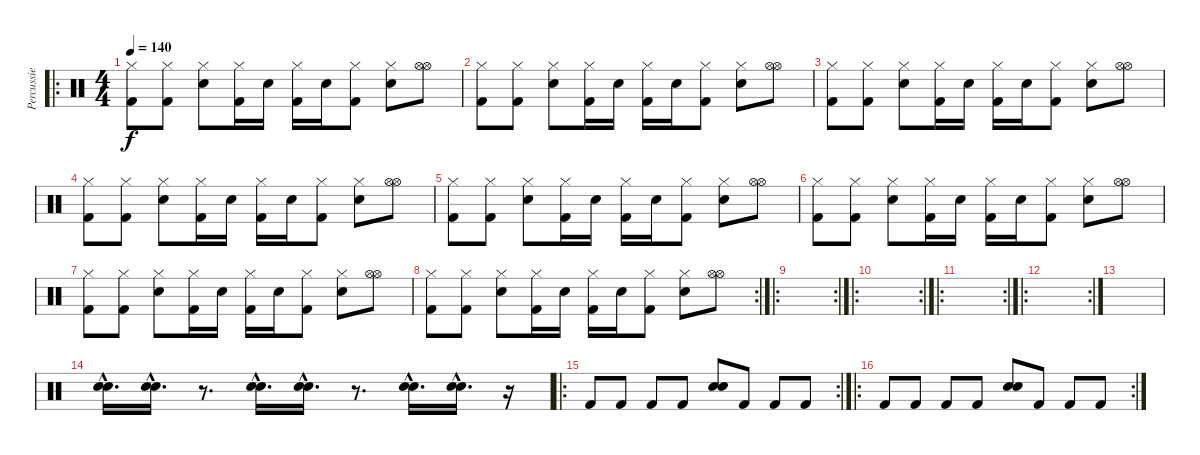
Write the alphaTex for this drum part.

\track ("Percussie" "Percussie") {instrument percussion}
\staff {score}
\articulation defaults
\ro
\ts (4 4)
\tempo 140
\clef neutral
\ks c
("Hi-Hat (closed)" "Kick (hit) 2").8{dy f} ("Hi-Hat (closed)" "Kick (hit) 2").8 ("Hi-Hat (closed)" "Snare (hit) 2").8 ("Hi-Hat (closed)" "Kick (hit) 2").16 "Snare (hit) 2".16 ("Hi-Hat (closed)" "Kick (hit) 2").16 "Snare (hit) 2".16 ("Hi-Hat (closed)" "Kick (hit) 2").8 ("Hi-Hat (closed)" "Snare (hit) 2").8 ("Hi-Hat (open)" "Hi-Hat (open)").8 |
("Hi-Hat (closed)" "Kick (hit) 2").8 ("Hi-Hat (closed)" "Kick (hit) 2").8 ("Hi-Hat (closed)" "Snare (hit) 2").8 ("Hi-Hat (closed)" "Kick (hit) 2").16 "Snare (hit) 2".16 ("Hi-Hat (closed)" "Kick (hit) 2").16 "Snare (hit) 2".16 ("Hi-Hat (closed)" "Kick (hit) 2").8 ("Hi-Hat (closed)" "Snare (hit) 2").8 ("Hi-Hat (open)" "Hi-Hat (open)").8 |
("Hi-Hat (closed)" "Kick (hit) 2").8 ("Hi-Hat (closed)" "Kick (hit) 2").8 ("Hi-Hat (closed)" "Snare (hit) 2").8 ("Hi-Hat (closed)" "Kick (hit) 2").16 "Snare (hit) 2".16 ("Hi-Hat (closed)" "Kick (hit) 2").16 "Snare (hit) 2".16 ("Hi-Hat (closed)" "Kick (hit) 2").8 ("Hi-Hat (closed)" "Snare (hit) 2").8 ("Hi-Hat (open)" "Hi-Hat (open)").8 |
("Hi-Hat (closed)" "Kick (hit) 2").8 ("Hi-Hat (closed)" "Kick (hit) 2").8 ("Hi-Hat (closed)" "Snare (hit) 2").8 ("Hi-Hat (closed)" "Kick (hit) 2").16 "Snare (hit) 2".16 ("Hi-Hat (closed)" "Kick (hit) 2").16 "Snare (hit) 2".16 ("Hi-Hat (closed)" "Kick (hit) 2").8 ("Hi-Hat (closed)" "Snare (hit) 2").8 ("Hi-Hat (open)" "Hi-Hat (open)").8 |
("Hi-Hat (closed)" "Kick (hit) 2").8 ("Hi-Hat (closed)" "Kick (hit) 2").8 ("Hi-Hat (closed)" "Snare (hit) 2").8 ("Hi-Hat (closed)" "Kick (hit) 2").16 "Snare (hit) 2".16 ("Hi-Hat (closed)" "Kick (hit) 2").16 "Snare (hit) 2".16 ("Hi-Hat (closed)" "Kick (hit) 2").8 ("Hi-Hat (closed)" "Snare (hit) 2").8 ("Hi-Hat (open)" "Hi-Hat (open)").8 |
("Hi-Hat (closed)" "Kick (hit) 2").8 ("Hi-Hat (closed)" "Kick (hit) 2").8 ("Hi-Hat (closed)" "Snare (hit) 2").8 ("Hi-Hat (closed)" "Kick (hit) 2").16 "Snare (hit) 2".16 ("Hi-Hat (closed)" "Kick (hit) 2").16 "Snare (hit) 2".16 ("Hi-Hat (closed)" "Kick (hit) 2").8 ("Hi-Hat (closed)" "Snare (hit) 2").8 ("Hi-Hat (open)" "Hi-Hat (open)").8 |
("Hi-Hat (closed)" "Kick (hit) 2").8 ("Hi-Hat (closed)" "Kick (hit) 2").8 ("Hi-Hat (closed)" "Snare (hit) 2").8 ("Hi-Hat (closed)" "Kick (hit) 2").16 "Snare (hit) 2".16 ("Hi-Hat (closed)" "Kick (hit) 2").16 "Snare (hit) 2".16 ("Hi-Hat (closed)" "Kick (hit) 2").8 ("Hi-Hat (closed)" "Snare (hit) 2").8 ("Hi-Hat (open)" "Hi-Hat (open)").8 |
\rc 2
("Hi-Hat (closed)" "Kick (hit) 2").8 ("Hi-Hat (closed)" "Kick (hit) 2").8 ("Hi-Hat (closed)" "Snare (hit) 2").8 ("Hi-Hat (closed)" "Kick (hit) 2").16 "Snare (hit) 2".16 ("Hi-Hat (closed)" "Kick (hit) 2").16 "Snare (hit) 2".16 ("Hi-Hat (closed)" "Kick (hit) 2").8 ("Hi-Hat (closed)" "Snare (hit) 2").8 ("Hi-Hat (open)" "Hi-Hat (open)").8 |
\ro
\rc 2
|
\ro
\rc 2
|
\ro
\rc 2
|
\ro
\rc 2
|
|
("Snare (hit) 2"{hac} "Snare (hit) 2"{hac}).16{d bd 480} ("Snare (hit) 2"{hac} "Snare (hit) 2"{hac}).16{d bd 480} r.8{d} ("Snare (hit) 2"{hac} "Snare (hit) 2"{hac}).16{d bd 480} ("Snare (hit) 2"{hac} "Snare (hit) 2"{hac}).16{d bd 480} r.8{d} ("Snare (hit) 2"{hac} "Snare (hit) 2"{hac}).16{d bd 480} ("Snare (hit) 2"{hac} "Snare (hit) 2"{hac}).16{d bd 480} r.16 |
\ro
\rc 2 "Kick (hit) 2".8 "Kick (hit) 2".8 "Kick (hit) 2".8 "Kick (hit) 2".8
("Snare (hit) 2" "Snare (hit) 2").8{bd 480} "Kick (hit) 2".8 "Kick (hit) 2".8 "Kick (hit) 2".8 |
\ro
\rc 2 "Kick (hit) 2".8 "Kick (hit) 2".8 "Kick (hit) 2".8 "Kick (hit) 2".8
("Snare (hit) 2" "Snare (hit) 2").8{bd 480} "Kick (hit) 2".8 "Kick (hit) 2".8 "Kick (hit) 2".8
